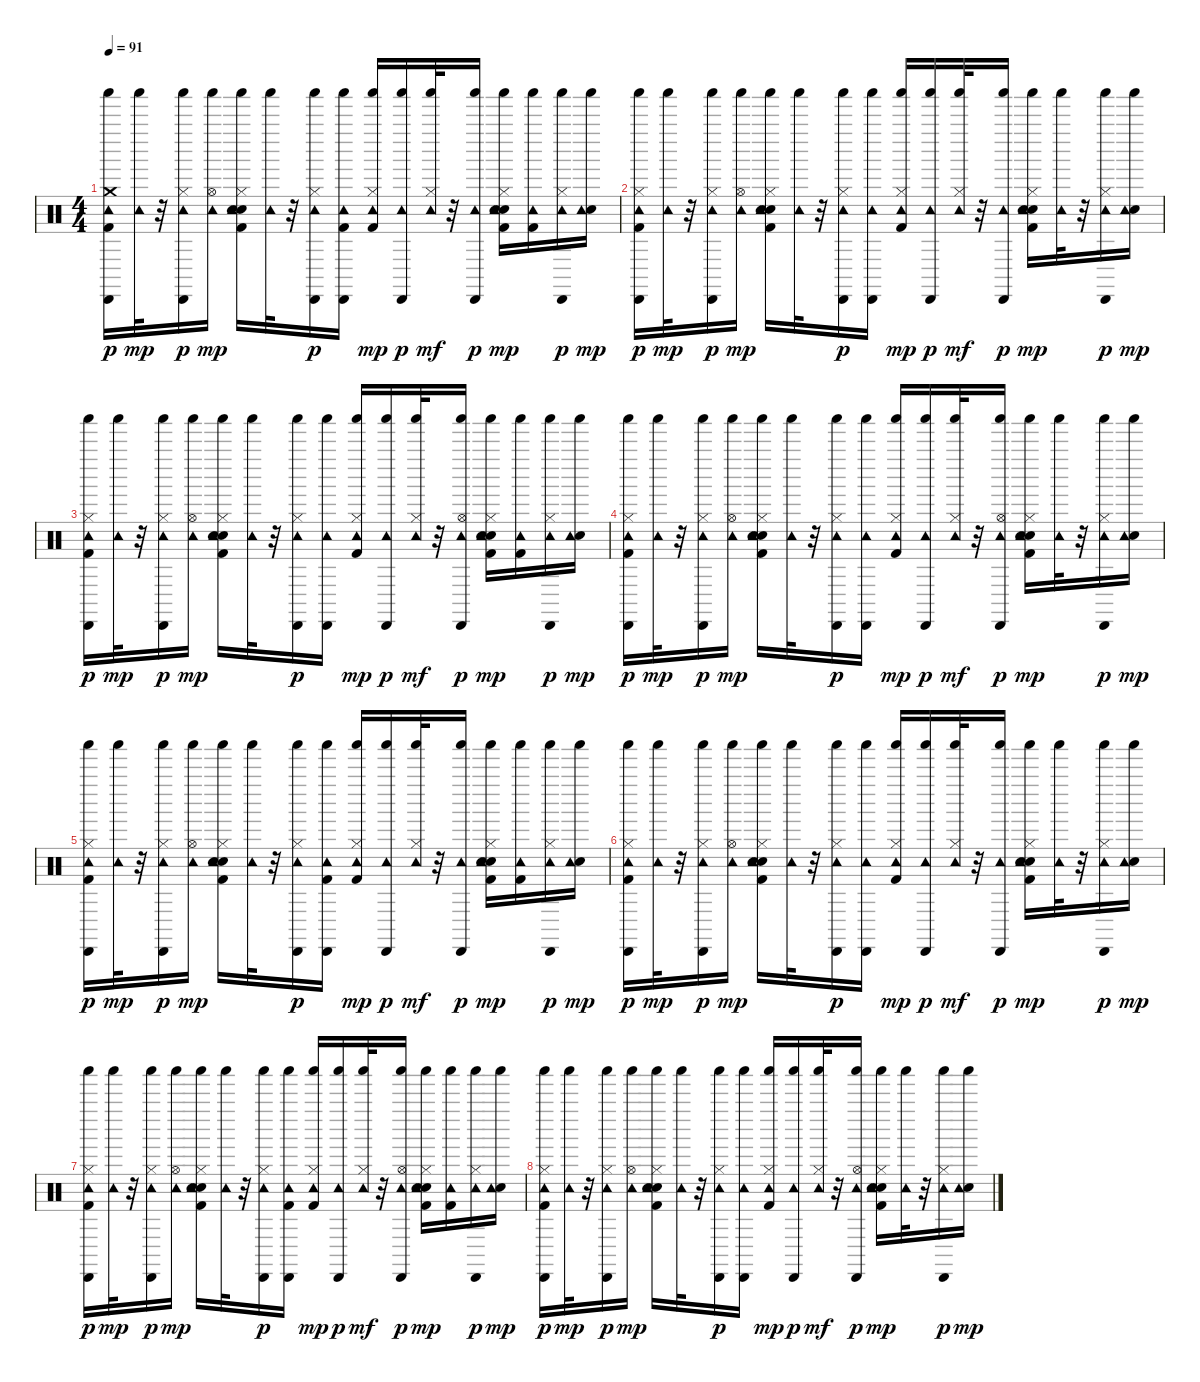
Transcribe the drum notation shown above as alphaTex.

\track "" {instrument percussion}
\staff {score}
\articulation defaults
\ts (4 4)
\tempo 91
\clef neutral
\ks c
("Crash medium (hit)" "Kick (hit) 2" "Tambourine (hit)" "Shaker (hit)" "Cabasa (hit)").16{dy p} ("Tambourine (hit)" "Shaker (hit)").32{dy mp} r.32 ("Hi-Hat (closed)" "Tambourine (hit)" "Shaker (hit)" "Cabasa (hit)").16{dy p} ("Hi-Hat (open)" "Tambourine (hit)" "Shaker (hit)").16{dy mp} ("Kick (hit) 2" "Electric Snare (hit)" "Hi-Hat (closed)" "Hand Clap (hit)" "Tambourine (hit)" "Shaker (hit)").16 ("Tambourine (hit)" "Shaker (hit)").32 r.32 ("Hi-Hat (closed)" "Tambourine (hit)" "Shaker (hit)" "Cabasa (hit)").16{dy p} ("Kick (hit) 2" "Tambourine (hit)" "Shaker (hit)" "Cabasa (hit)").16 ("Kick (hit) 2" "Hi-Hat (closed)" "Tambourine (hit)" "Shaker (hit)").16{dy mp} ("Tambourine (hit)" "Shaker (hit)" "Cabasa (hit)").16{dy p} ("Hi-Hat (closed)" "Tambourine (hit)" "Shaker (hit)").32{dy mf} r.32 ("Tambourine (hit)" "Shaker (hit)" "Cabasa (hit)").16{dy p} ("Kick (hit) 2" "Electric Snare (hit)" "Hi-Hat (closed)" "Hand Clap (hit)" "Tambourine (hit)" "Shaker (hit)").16{dy mp} ("Kick (hit) 2" "Tambourine (hit)" "Shaker (hit)").16 ("Hi-Hat (closed)" "Tambourine (hit)" "Shaker (hit)" "Cabasa (hit)").16{dy p} ("Electric Snare (hit)" "Tambourine (hit)" "Shaker (hit)").16{dy mp} |
("Kick (hit) 2" "Hi-Hat (closed)" "Tambourine (hit)" "Shaker (hit)" "Cabasa (hit)").16{dy p} ("Tambourine (hit)" "Shaker (hit)").32{dy mp} r.32 ("Hi-Hat (closed)" "Tambourine (hit)" "Shaker (hit)" "Cabasa (hit)").16{dy p} ("Hi-Hat (open)" "Tambourine (hit)" "Shaker (hit)").16{dy mp} ("Kick (hit) 2" "Electric Snare (hit)" "Hi-Hat (closed)" "Hand Clap (hit)" "Tambourine (hit)" "Shaker (hit)").16 ("Tambourine (hit)" "Shaker (hit)").32 r.32 ("Hi-Hat (closed)" "Tambourine (hit)" "Shaker (hit)" "Cabasa (hit)").16{dy p} ("Tambourine (hit)" "Shaker (hit)" "Cabasa (hit)").16 ("Kick (hit) 2" "Hi-Hat (closed)" "Tambourine (hit)" "Shaker (hit)").16{dy mp} ("Tambourine (hit)" "Shaker (hit)" "Cabasa (hit)").16{dy p} ("Hi-Hat (closed)" "Tambourine (hit)" "Shaker (hit)").32{dy mf} r.32 ("Tambourine (hit)" "Shaker (hit)" "Cabasa (hit)").16{dy p} ("Kick (hit) 2" "Electric Snare (hit)" "Hi-Hat (closed)" "Hand Clap (hit)" "Tambourine (hit)" "Shaker (hit)").16{dy mp} ("Tambourine (hit)" "Shaker (hit)").32 r.32 ("Hi-Hat (closed)" "Tambourine (hit)" "Shaker (hit)" "Cabasa (hit)").16{dy p} ("Electric Snare (hit)" "Tambourine (hit)" "Shaker (hit)").16{dy mp} |
("Kick (hit) 2" "Hi-Hat (closed)" "Tambourine (hit)" "Shaker (hit)" "Cabasa (hit)").16{dy p} ("Tambourine (hit)" "Shaker (hit)").32{dy mp} r.32 ("Hi-Hat (closed)" "Tambourine (hit)" "Shaker (hit)" "Cabasa (hit)").16{dy p} ("Hi-Hat (open)" "Tambourine (hit)" "Shaker (hit)").16{dy mp} ("Kick (hit) 2" "Electric Snare (hit)" "Hi-Hat (closed)" "Hand Clap (hit)" "Tambourine (hit)" "Shaker (hit)").16 ("Tambourine (hit)" "Shaker (hit)").32 r.32 ("Hi-Hat (closed)" "Tambourine (hit)" "Shaker (hit)" "Cabasa (hit)").16{dy p} ("Tambourine (hit)" "Shaker (hit)" "Cabasa (hit)").16 ("Kick (hit) 2" "Hi-Hat (closed)" "Tambourine (hit)" "Shaker (hit)").16{dy mp} ("Tambourine (hit)" "Shaker (hit)" "Cabasa (hit)").16{dy p} ("Hi-Hat (closed)" "Tambourine (hit)" "Shaker (hit)").32{dy mf} r.32 ("Hi-Hat (open)" "Tambourine (hit)" "Shaker (hit)" "Cabasa (hit)").16{dy p} ("Kick (hit) 2" "Electric Snare (hit)" "Hi-Hat (closed)" "Hand Clap (hit)" "Tambourine (hit)" "Shaker (hit)").16{dy mp} ("Kick (hit) 2" "Tambourine (hit)" "Shaker (hit)").16 ("Hi-Hat (closed)" "Tambourine (hit)" "Shaker (hit)" "Cabasa (hit)").16{dy p} ("Electric Snare (hit)" "Tambourine (hit)" "Shaker (hit)").16{dy mp} |
("Kick (hit) 2" "Hi-Hat (closed)" "Tambourine (hit)" "Shaker (hit)" "Cabasa (hit)").16{dy p} ("Tambourine (hit)" "Shaker (hit)").32{dy mp} r.32 ("Hi-Hat (closed)" "Tambourine (hit)" "Shaker (hit)" "Cabasa (hit)").16{dy p} ("Hi-Hat (open)" "Tambourine (hit)" "Shaker (hit)").16{dy mp} ("Kick (hit) 2" "Electric Snare (hit)" "Hi-Hat (closed)" "Hand Clap (hit)" "Tambourine (hit)" "Shaker (hit)").16 ("Tambourine (hit)" "Shaker (hit)").32 r.32 ("Hi-Hat (closed)" "Tambourine (hit)" "Shaker (hit)" "Cabasa (hit)").16{dy p} ("Tambourine (hit)" "Shaker (hit)" "Cabasa (hit)").16 ("Kick (hit) 2" "Hi-Hat (closed)" "Tambourine (hit)" "Shaker (hit)").16{dy mp} ("Tambourine (hit)" "Shaker (hit)" "Cabasa (hit)").16{dy p} ("Hi-Hat (closed)" "Tambourine (hit)" "Shaker (hit)").32{dy mf} r.32 ("Hi-Hat (open)" "Tambourine (hit)" "Shaker (hit)" "Cabasa (hit)").16{dy p} ("Kick (hit) 2" "Electric Snare (hit)" "Hi-Hat (closed)" "Hand Clap (hit)" "Tambourine (hit)" "Shaker (hit)").16{dy mp} ("Tambourine (hit)" "Shaker (hit)").32 r.32 ("Hi-Hat (closed)" "Tambourine (hit)" "Shaker (hit)" "Cabasa (hit)").16{dy p} ("Electric Snare (hit)" "Tambourine (hit)" "Shaker (hit)").16{dy mp} |
("Kick (hit) 2" "Hi-Hat (closed)" "Tambourine (hit)" "Shaker (hit)" "Cabasa (hit)").16{dy p} ("Tambourine (hit)" "Shaker (hit)").32{dy mp} r.32 ("Hi-Hat (closed)" "Tambourine (hit)" "Shaker (hit)" "Cabasa (hit)").16{dy p} ("Hi-Hat (open)" "Tambourine (hit)" "Shaker (hit)").16{dy mp} ("Kick (hit) 2" "Electric Snare (hit)" "Hi-Hat (closed)" "Hand Clap (hit)" "Tambourine (hit)" "Shaker (hit)").16 ("Tambourine (hit)" "Shaker (hit)").32 r.32 ("Hi-Hat (closed)" "Tambourine (hit)" "Shaker (hit)" "Cabasa (hit)").16{dy p} ("Kick (hit) 2" "Tambourine (hit)" "Shaker (hit)" "Cabasa (hit)").16 ("Kick (hit) 2" "Hi-Hat (closed)" "Tambourine (hit)" "Shaker (hit)").16{dy mp} ("Tambourine (hit)" "Shaker (hit)" "Cabasa (hit)").16{dy p} ("Hi-Hat (closed)" "Tambourine (hit)" "Shaker (hit)").32{dy mf} r.32 ("Tambourine (hit)" "Shaker (hit)" "Cabasa (hit)").16{dy p} ("Kick (hit) 2" "Electric Snare (hit)" "Hi-Hat (closed)" "Hand Clap (hit)" "Tambourine (hit)" "Shaker (hit)").16{dy mp} ("Kick (hit) 2" "Tambourine (hit)" "Shaker (hit)").16 ("Hi-Hat (closed)" "Tambourine (hit)" "Shaker (hit)" "Cabasa (hit)").16{dy p} ("Electric Snare (hit)" "Tambourine (hit)" "Shaker (hit)").16{dy mp} |
("Kick (hit) 2" "Hi-Hat (closed)" "Tambourine (hit)" "Shaker (hit)" "Cabasa (hit)").16{dy p} ("Tambourine (hit)" "Shaker (hit)").32{dy mp} r.32 ("Hi-Hat (closed)" "Tambourine (hit)" "Shaker (hit)" "Cabasa (hit)").16{dy p} ("Hi-Hat (open)" "Tambourine (hit)" "Shaker (hit)").16{dy mp} ("Kick (hit) 2" "Electric Snare (hit)" "Hi-Hat (closed)" "Hand Clap (hit)" "Tambourine (hit)" "Shaker (hit)").16 ("Tambourine (hit)" "Shaker (hit)").32 r.32 ("Hi-Hat (closed)" "Tambourine (hit)" "Shaker (hit)" "Cabasa (hit)").16{dy p} ("Tambourine (hit)" "Shaker (hit)" "Cabasa (hit)").16 ("Kick (hit) 2" "Hi-Hat (closed)" "Tambourine (hit)" "Shaker (hit)").16{dy mp} ("Tambourine (hit)" "Shaker (hit)" "Cabasa (hit)").16{dy p} ("Hi-Hat (closed)" "Tambourine (hit)" "Shaker (hit)").32{dy mf} r.32 ("Tambourine (hit)" "Shaker (hit)" "Cabasa (hit)").16{dy p} ("Kick (hit) 2" "Electric Snare (hit)" "Hi-Hat (closed)" "Hand Clap (hit)" "Tambourine (hit)" "Shaker (hit)").16{dy mp} ("Tambourine (hit)" "Shaker (hit)").32 r.32 ("Hi-Hat (closed)" "Tambourine (hit)" "Shaker (hit)" "Cabasa (hit)").16{dy p} ("Electric Snare (hit)" "Tambourine (hit)" "Shaker (hit)").16{dy mp} |
("Kick (hit) 2" "Hi-Hat (closed)" "Tambourine (hit)" "Shaker (hit)" "Cabasa (hit)").16{dy p} ("Tambourine (hit)" "Shaker (hit)").32{dy mp} r.32 ("Hi-Hat (closed)" "Tambourine (hit)" "Shaker (hit)" "Cabasa (hit)").16{dy p} ("Hi-Hat (open)" "Tambourine (hit)" "Shaker (hit)").16{dy mp} ("Kick (hit) 2" "Electric Snare (hit)" "Hi-Hat (closed)" "Hand Clap (hit)" "Tambourine (hit)" "Shaker (hit)").16 ("Tambourine (hit)" "Shaker (hit)").32 r.32 ("Hi-Hat (closed)" "Tambourine (hit)" "Shaker (hit)" "Cabasa (hit)").16{dy p} ("Kick (hit) 2" "Tambourine (hit)" "Shaker (hit)" "Cabasa (hit)").16 ("Kick (hit) 2" "Hi-Hat (closed)" "Tambourine (hit)" "Shaker (hit)").16{dy mp} ("Tambourine (hit)" "Shaker (hit)" "Cabasa (hit)").16{dy p} ("Hi-Hat (closed)" "Tambourine (hit)" "Shaker (hit)").32{dy mf} r.32 ("Hi-Hat (open)" "Tambourine (hit)" "Shaker (hit)" "Cabasa (hit)").16{dy p} ("Kick (hit) 2" "Electric Snare (hit)" "Hi-Hat (closed)" "Hand Clap (hit)" "Tambourine (hit)" "Shaker (hit)").16{dy mp} ("Kick (hit) 2" "Tambourine (hit)" "Shaker (hit)").16 ("Hi-Hat (closed)" "Tambourine (hit)" "Shaker (hit)" "Cabasa (hit)").16{dy p} ("Electric Snare (hit)" "Tambourine (hit)" "Shaker (hit)").16{dy mp} |
("Kick (hit) 2" "Hi-Hat (closed)" "Tambourine (hit)" "Shaker (hit)" "Cabasa (hit)").16{dy p} ("Tambourine (hit)" "Shaker (hit)").32{dy mp} r.32 ("Hi-Hat (closed)" "Tambourine (hit)" "Shaker (hit)" "Cabasa (hit)").16{dy p} ("Hi-Hat (open)" "Tambourine (hit)" "Shaker (hit)").16{dy mp} ("Kick (hit) 2" "Electric Snare (hit)" "Hi-Hat (closed)" "Hand Clap (hit)" "Tambourine (hit)" "Shaker (hit)").16 ("Tambourine (hit)" "Shaker (hit)").32 r.32 ("Hi-Hat (closed)" "Tambourine (hit)" "Shaker (hit)" "Cabasa (hit)").16{dy p} ("Tambourine (hit)" "Shaker (hit)" "Cabasa (hit)").16 ("Kick (hit) 2" "Hi-Hat (closed)" "Tambourine (hit)" "Shaker (hit)").16{dy mp} ("Tambourine (hit)" "Shaker (hit)" "Cabasa (hit)").16{dy p} ("Hi-Hat (closed)" "Tambourine (hit)" "Shaker (hit)").32{dy mf} r.32 ("Hi-Hat (open)" "Tambourine (hit)" "Shaker (hit)" "Cabasa (hit)").16{dy p} ("Kick (hit) 2" "Electric Snare (hit)" "Hi-Hat (closed)" "Hand Clap (hit)" "Tambourine (hit)" "Shaker (hit)").16{dy mp} ("Tambourine (hit)" "Shaker (hit)").32 r.32 ("Hi-Hat (closed)" "Tambourine (hit)" "Shaker (hit)" "Cabasa (hit)").16{dy p} ("Electric Snare (hit)" "Tambourine (hit)" "Shaker (hit)").16{dy mp}
